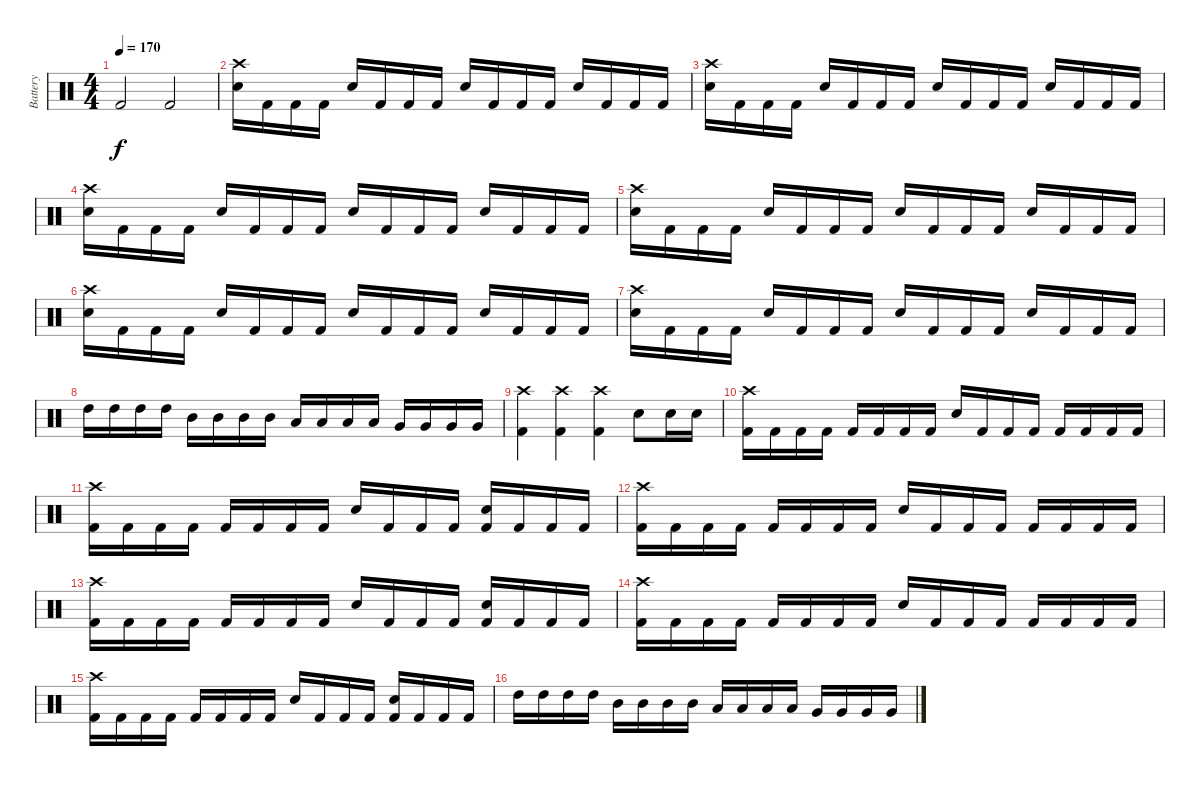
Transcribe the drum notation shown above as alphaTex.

\track ("Battery" "Battery") {instrument percussion}
\staff {score}
\articulation defaults
\ts (4 4)
\tempo 170
\clef neutral
\ks c "Kick (hit) 2".2{dy f} "Kick (hit) 2".2
|
("Snare (hit) 2" "Crash high (hit)").16 "Kick (hit) 2".16 "Kick (hit) 2".16 "Kick (hit) 2".16 "Snare (hit) 2".16 "Kick (hit) 2".16 "Kick (hit) 2".16 "Kick (hit) 2".16 "Snare (hit) 2".16 "Kick (hit) 2".16 "Kick (hit) 2".16 "Kick (hit) 2".16 "Snare (hit) 2".16 "Kick (hit) 2".16 "Kick (hit) 2".16 "Kick (hit) 2".16 |
("Snare (hit) 2" "Crash high (hit)").16 "Kick (hit) 2".16 "Kick (hit) 2".16 "Kick (hit) 2".16 "Snare (hit) 2".16 "Kick (hit) 2".16 "Kick (hit) 2".16 "Kick (hit) 2".16 "Snare (hit) 2".16 "Kick (hit) 2".16 "Kick (hit) 2".16 "Kick (hit) 2".16 "Snare (hit) 2".16 "Kick (hit) 2".16 "Kick (hit) 2".16 "Kick (hit) 2".16 |
("Snare (hit) 2" "Crash high (hit)").16 "Kick (hit) 2".16 "Kick (hit) 2".16 "Kick (hit) 2".16 "Snare (hit) 2".16 "Kick (hit) 2".16 "Kick (hit) 2".16 "Kick (hit) 2".16 "Snare (hit) 2".16 "Kick (hit) 2".16 "Kick (hit) 2".16 "Kick (hit) 2".16 "Snare (hit) 2".16 "Kick (hit) 2".16 "Kick (hit) 2".16 "Kick (hit) 2".16 |
("Snare (hit) 2" "Crash high (hit)").16 "Kick (hit) 2".16 "Kick (hit) 2".16 "Kick (hit) 2".16 "Snare (hit) 2".16 "Kick (hit) 2".16 "Kick (hit) 2".16 "Kick (hit) 2".16 "Snare (hit) 2".16 "Kick (hit) 2".16 "Kick (hit) 2".16 "Kick (hit) 2".16 "Snare (hit) 2".16 "Kick (hit) 2".16 "Kick (hit) 2".16 "Kick (hit) 2".16 |
("Snare (hit) 2" "Crash high (hit)").16 "Kick (hit) 2".16 "Kick (hit) 2".16 "Kick (hit) 2".16 "Snare (hit) 2".16 "Kick (hit) 2".16 "Kick (hit) 2".16 "Kick (hit) 2".16 "Snare (hit) 2".16 "Kick (hit) 2".16 "Kick (hit) 2".16 "Kick (hit) 2".16 "Snare (hit) 2".16 "Kick (hit) 2".16 "Kick (hit) 2".16 "Kick (hit) 2".16 |
("Snare (hit) 2" "Crash high (hit)").16 "Kick (hit) 2".16 "Kick (hit) 2".16 "Kick (hit) 2".16 "Snare (hit) 2".16 "Kick (hit) 2".16 "Kick (hit) 2".16 "Kick (hit) 2".16 "Snare (hit) 2".16 "Kick (hit) 2".16 "Kick (hit) 2".16 "Kick (hit) 2".16 "Snare (hit) 2".16 "Kick (hit) 2".16 "Kick (hit) 2".16 "Kick (hit) 2".16 |
"High Tom (hit)".16 "High Tom (hit)".16 "High Tom (hit)".16 "High Tom (hit)".16 "Mid Tom (hit)".16 "Mid Tom (hit)".16 "Mid Tom (hit)".16 "Mid Tom (hit)".16 "Low Tom (hit)".16 "Low Tom (hit)".16 "Low Tom (hit)".16 "Low Tom (hit)".16 "Very Low Tom (hit)".16 "Very Low Tom (hit)".16 "Very Low Tom (hit)".16 "Very Low Tom (hit)".16 |
("Kick (hit) 2" "Crash high (hit)").4 ("Kick (hit) 2" "Crash high (hit)").4 ("Kick (hit) 2" "Crash high (hit)").4 "Snare (hit) 2".8 "Snare (hit) 2".16 "Snare (hit) 2".16 |
("Crash high (hit)" "Kick (hit) 2").16 "Kick (hit) 2".16 "Kick (hit) 2".16 "Kick (hit) 2".16 "Kick (hit) 2".16 "Kick (hit) 2".16 "Kick (hit) 2".16 "Kick (hit) 2".16 "Snare (hit) 2".16 "Kick (hit) 2".16 "Kick (hit) 2".16 "Kick (hit) 2".16 "Kick (hit) 2".16 "Kick (hit) 2".16 "Kick (hit) 2".16 "Kick (hit) 2".16 |
("Crash high (hit)" "Kick (hit) 2").16 "Kick (hit) 2".16 "Kick (hit) 2".16 "Kick (hit) 2".16 "Kick (hit) 2".16 "Kick (hit) 2".16 "Kick (hit) 2".16 "Kick (hit) 2".16 "Snare (hit) 2".16 "Kick (hit) 2".16 "Kick (hit) 2".16 "Kick (hit) 2".16 ("Snare (hit) 2" "Kick (hit) 2").16 "Kick (hit) 2".16 "Kick (hit) 2".16 "Kick (hit) 2".16 |
("Crash high (hit)" "Kick (hit) 2").16 "Kick (hit) 2".16 "Kick (hit) 2".16 "Kick (hit) 2".16 "Kick (hit) 2".16 "Kick (hit) 2".16 "Kick (hit) 2".16 "Kick (hit) 2".16 "Snare (hit) 2".16 "Kick (hit) 2".16 "Kick (hit) 2".16 "Kick (hit) 2".16 "Kick (hit) 2".16 "Kick (hit) 2".16 "Kick (hit) 2".16 "Kick (hit) 2".16 |
("Crash high (hit)" "Kick (hit) 2").16 "Kick (hit) 2".16 "Kick (hit) 2".16 "Kick (hit) 2".16 "Kick (hit) 2".16 "Kick (hit) 2".16 "Kick (hit) 2".16 "Kick (hit) 2".16 "Snare (hit) 2".16 "Kick (hit) 2".16 "Kick (hit) 2".16 "Kick (hit) 2".16 ("Snare (hit) 2" "Kick (hit) 2").16 "Kick (hit) 2".16 "Kick (hit) 2".16 "Kick (hit) 2".16 |
("Crash high (hit)" "Kick (hit) 2").16 "Kick (hit) 2".16 "Kick (hit) 2".16 "Kick (hit) 2".16 "Kick (hit) 2".16 "Kick (hit) 2".16 "Kick (hit) 2".16 "Kick (hit) 2".16 "Snare (hit) 2".16 "Kick (hit) 2".16 "Kick (hit) 2".16 "Kick (hit) 2".16 "Kick (hit) 2".16 "Kick (hit) 2".16 "Kick (hit) 2".16 "Kick (hit) 2".16 |
("Crash high (hit)" "Kick (hit) 2").16 "Kick (hit) 2".16 "Kick (hit) 2".16 "Kick (hit) 2".16 "Kick (hit) 2".16 "Kick (hit) 2".16 "Kick (hit) 2".16 "Kick (hit) 2".16 "Snare (hit) 2".16 "Kick (hit) 2".16 "Kick (hit) 2".16 "Kick (hit) 2".16 ("Snare (hit) 2" "Kick (hit) 2").16 "Kick (hit) 2".16 "Kick (hit) 2".16 "Kick (hit) 2".16 |
"High Tom (hit)".16 "High Tom (hit)".16 "High Tom (hit)".16 "High Tom (hit)".16 "Mid Tom (hit)".16 "Mid Tom (hit)".16 "Mid Tom (hit)".16 "Mid Tom (hit)".16 "Low Tom (hit)".16 "Low Tom (hit)".16 "Low Tom (hit)".16 "Low Tom (hit)".16 "Very Low Tom (hit)".16 "Very Low Tom (hit)".16 "Very Low Tom (hit)".16 "Very Low Tom (hit)".16
